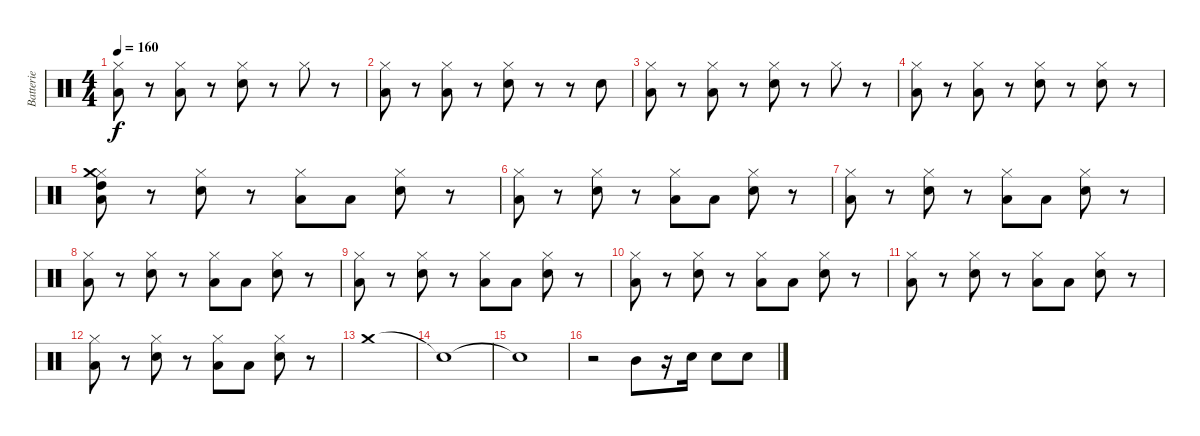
\track ("Batterie" "Batterie") {instrument percussion}
\staff {score}
\articulation defaults
\ts (4 4)
\tempo 160
\clef neutral
\ks c
("Hi-Hat (closed)" "Low Floor Tom (hit)").8{dy f} r.8 ("Hi-Hat (closed)" "Low Floor Tom (hit)").8 r.8 ("Hi-Hat (closed)" "Electric Snare (hit)").8 r.8 "Hi-Hat (closed)".8 r.8 |
("Hi-Hat (closed)" "Low Floor Tom (hit)").8 r.8 ("Hi-Hat (closed)" "Low Floor Tom (hit)").8 r.8 ("Hi-Hat (closed)" "Electric Snare (hit)").8 r.8 r.8 "Electric Snare (hit)".8 |
("Hi-Hat (closed)" "Low Floor Tom (hit)").8 r.8 ("Hi-Hat (closed)" "Low Floor Tom (hit)").8 r.8 ("Hi-Hat (closed)" "Electric Snare (hit)").8 r.8 "Hi-Hat (closed)".8 r.8 |
("Hi-Hat (closed)" "Low Floor Tom (hit)").8 r.8 ("Hi-Hat (closed)" "Low Floor Tom (hit)").8 r.8 ("Hi-Hat (closed)" "Electric Snare (hit)").8 r.8 ("Hi-Hat (closed)" "Electric Snare (hit)").8 r.8 |
("Hi-Hat (closed)" "Low Floor Tom (hit)" "Crash medium (hit)" "High Tom (hit)").8 r.8 ("Hi-Hat (closed)" "Electric Snare (hit)").8 r.8 ("Hi-Hat (closed)" "Low Floor Tom (hit)").8 "Low Floor Tom (hit)".8 ("Hi-Hat (closed)" "Electric Snare (hit)").8 r.8 |
("Hi-Hat (closed)" "Low Floor Tom (hit)").8 r.8 ("Hi-Hat (closed)" "Electric Snare (hit)").8 r.8 ("Hi-Hat (closed)" "Low Floor Tom (hit)").8 "Low Floor Tom (hit)".8 ("Hi-Hat (closed)" "Electric Snare (hit)").8 r.8 |
("Hi-Hat (closed)" "Low Floor Tom (hit)").8 r.8 ("Hi-Hat (closed)" "Electric Snare (hit)").8 r.8 ("Hi-Hat (closed)" "Low Floor Tom (hit)").8 "Low Floor Tom (hit)".8 ("Hi-Hat (closed)" "Electric Snare (hit)").8 r.8 |
("Hi-Hat (closed)" "Low Floor Tom (hit)").8 r.8 ("Hi-Hat (closed)" "Electric Snare (hit)").8 r.8 ("Hi-Hat (closed)" "Low Floor Tom (hit)").8 "Low Floor Tom (hit)".8 ("Hi-Hat (closed)" "Electric Snare (hit)").8 r.8 |
("Hi-Hat (closed)" "Low Floor Tom (hit)").8 r.8 ("Hi-Hat (closed)" "Electric Snare (hit)").8 r.8 ("Hi-Hat (closed)" "Low Floor Tom (hit)").8 "Low Floor Tom (hit)".8 ("Hi-Hat (closed)" "Electric Snare (hit)").8 r.8 |
("Hi-Hat (closed)" "Low Floor Tom (hit)").8 r.8 ("Hi-Hat (closed)" "Electric Snare (hit)").8 r.8 ("Hi-Hat (closed)" "Low Floor Tom (hit)").8 "Low Floor Tom (hit)".8 ("Hi-Hat (closed)" "Electric Snare (hit)").8 r.8 |
("Hi-Hat (closed)" "Low Floor Tom (hit)").8 r.8 ("Hi-Hat (closed)" "Electric Snare (hit)").8 r.8 ("Hi-Hat (closed)" "Low Floor Tom (hit)").8 "Low Floor Tom (hit)".8 ("Hi-Hat (closed)" "Electric Snare (hit)").8 r.8 |
("Hi-Hat (closed)" "Low Floor Tom (hit)").8 r.8 ("Hi-Hat (closed)" "Electric Snare (hit)").8 r.8 ("Hi-Hat (closed)" "Low Floor Tom (hit)").8 "Low Floor Tom (hit)".8 ("Hi-Hat (closed)" "Electric Snare (hit)").8 r.8 |
"Crash medium (hit)".1 |
"Snare (hit)"{t}.1 |
"Snare (hit)"{t}.1 |
r.2 "Mid Tom (hit)".8 r.16 "Snare (hit) 2".16 "Snare (hit) 2".8 "Snare (hit) 2".8
